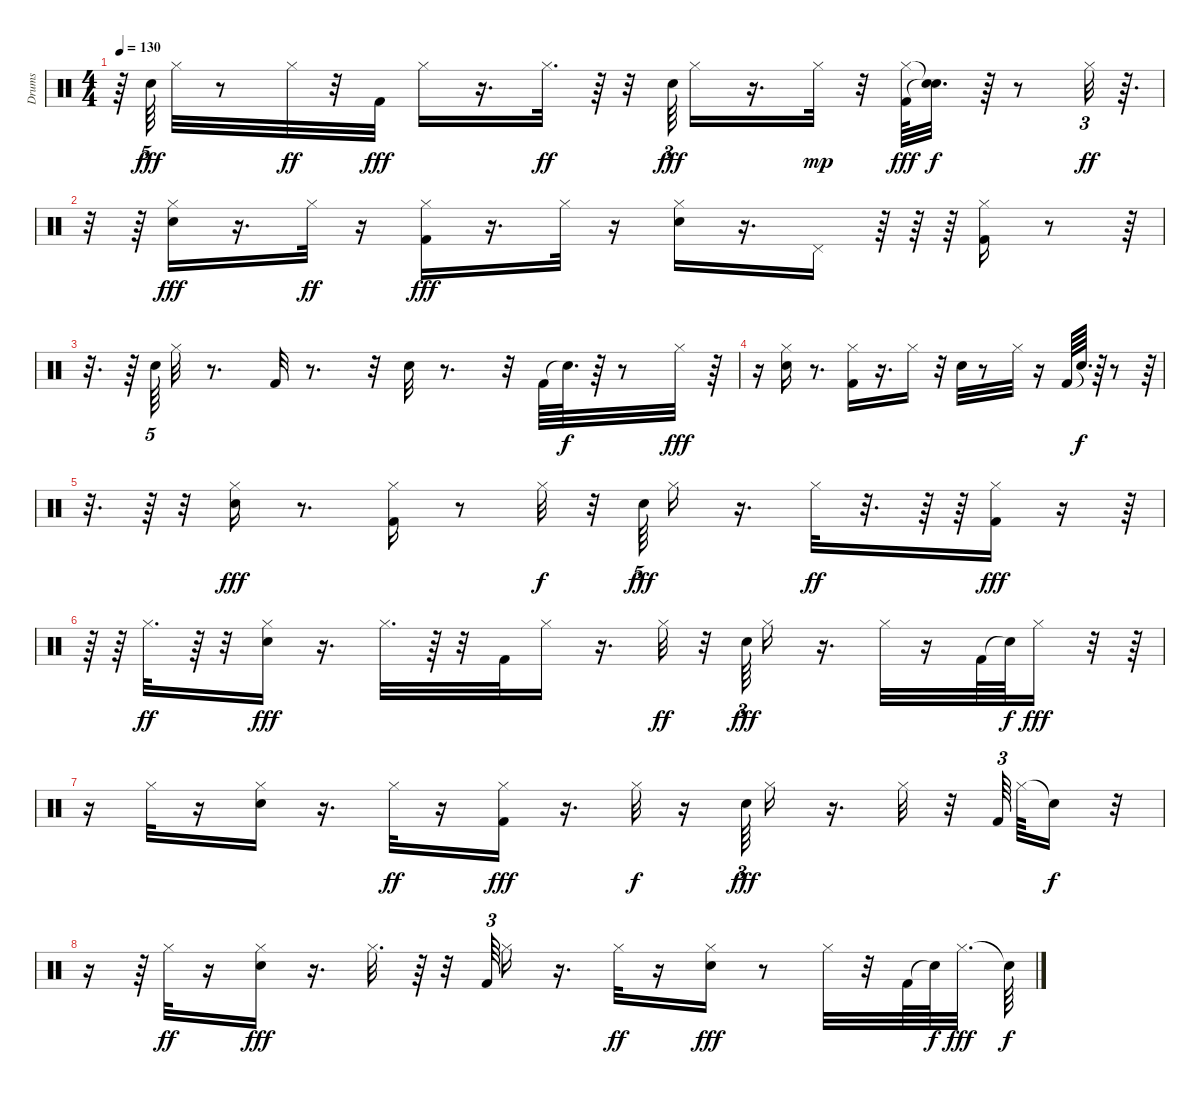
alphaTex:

\track ("Drums" "Drums") {instrument percussion}
\staff {score}
\articulation defaults
\ts (4 4)
\tempo 130
\clef neutral
\ks c
r.64{dy fff} "Electric Snare (hit)".64{tu (5 4)} "Hi-Hat (closed)".32 r.8 "Hi-Hat (closed)".32{dy ff} r.32 "Kick (hit) 2".32{dy fff} "Hi-Hat (closed)".16 r.16{d} "Hi-Hat (closed)".32{d dy ff} r.64 r.32 "Electric Snare (hit)".64{tu (3 2) dy fff} "Hi-Hat (closed)".16 r.16{d} "Hi-Hat (closed)".32{dy mp} r.32 ("Kick (hit) 2" "Hi-Hat (closed)").64{dy fff} ("Snare (hit)"{t} "Snare (hit)"{t}).32{d dy f} r.64 r.8 "Hi-Hat (closed)".32{tu (3 2) dy ff} r.64{d} |
r.32 r.64 ("Electric Snare (hit)" "Hi-Hat (closed)").16{dy fff} r.16{d} "Hi-Hat (closed)".32{dy ff} r.16 ("Kick (hit) 2" "Hi-Hat (closed)").16{dy fff} r.16{d} "Hi-Hat (closed)".32 r.16 ("Electric Snare (hit)" "Hi-Hat (closed)").16 r.16{d} "Pedal Hi-Hat (hit)".16 r.64 r.64 r.64 ("Kick (hit) 2" "Hi-Hat (closed)").16 r.8 r.64 |
r.32{d} r.64 "Electric Snare (hit)".64{tu (5 4)} "Hi-Hat (closed)".32 r.8{d} "Kick (hit) 2".32 r.8{d} r.32 "Electric Snare (hit)".32 r.8{d} r.32 "Kick (hit) 2".64 "Snare (hit)"{t}.64{d dy f} r.64 r.8 "Hi-Hat (closed)".32{dy fff} r.64 |
r.16 ("Hi-Hat (closed)" "Electric Snare (hit)").16 r.8{d} ("Kick (hit) 2" "Hi-Hat (closed)").16 r.16{d} "Hi-Hat (closed)".16 r.32 "Electric Snare (hit)".32 r.8 "Hi-Hat (closed)".32 r.16 "Kick (hit) 2".64 "Snare (hit)"{t}.64{d dy f} r.64 r.8 r.64 |
r.32{d} r.64 r.32 ("Electric Snare (hit)" "Hi-Hat (closed)").16{dy fff} r.8{d} ("Kick (hit) 2" "Hi-Hat (closed)").16 r.8 "Hi-Hat (closed)".32{dy f} r.32 "Electric Snare (hit)".64{tu (5 4) dy fff} "Hi-Hat (closed)".16 r.16{d} "Hi-Hat (closed)".32{dy ff} r.32{d} r.64 r.64 ("Kick (hit) 2" "Hi-Hat (closed)").16{dy fff} r.16 r.64 |
r.64 r.64 "Hi-Hat (closed)".32{d dy ff} r.64 r.32 ("Electric Snare (hit)" "Hi-Hat (closed)").16{dy fff} r.16{d} "Hi-Hat (closed)".32{d} r.64 r.32 "Kick (hit) 2".32 "Hi-Hat (closed)".16 r.16{d} "Hi-Hat (closed)".32{dy ff} r.32 "Electric Snare (hit)".64{tu (3 2) dy fff} "Hi-Hat (closed)".16 r.16{d} "Hi-Hat (closed)".32 r.16 "Kick (hit) 2".64 "Snare (hit)"{t}.64{dy f} "Hi-Hat (closed)".16{dy fff} r.32 r.64 |
r.16 "Hi-Hat (closed)".32 r.16 ("Electric Snare (hit)" "Hi-Hat (closed)").16 r.16{d} "Hi-Hat (closed)".32{dy ff} r.16 ("Kick (hit) 2" "Hi-Hat (closed)").16{dy fff} r.16{d} "Hi-Hat (closed)".32{dy f} r.16 "Electric Snare (hit)".64{tu (3 2) dy fff} "Hi-Hat (closed)".16 r.16{d} "Hi-Hat (closed)".32 r.32 "Kick (hit) 2".64{tu (3 2) beam splitsecondary} "Hi-Hat (closed)".64 "Snare (hit)"{t}.16{dy f} r.32 |
r.16 r.64 "Hi-Hat (closed)".32{dy ff} r.16 ("Electric Snare (hit)" "Hi-Hat (closed)").16{dy fff} r.16{d} "Hi-Hat (closed)".32{d} r.64 r.32 "Kick (hit) 2".64{tu (3 2)} "Hi-Hat (closed)".16 r.16{d} "Hi-Hat (closed)".32{dy ff} r.16 ("Electric Snare (hit)" "Hi-Hat (closed)").16{dy fff} r.8 "Hi-Hat (closed)".32 r.32 "Kick (hit) 2".64 "Snare (hit)"{t}.64{dy f} "Hi-Hat (closed)".32{d dy fff} "Snare (hit)"{t}.64{dy f}
